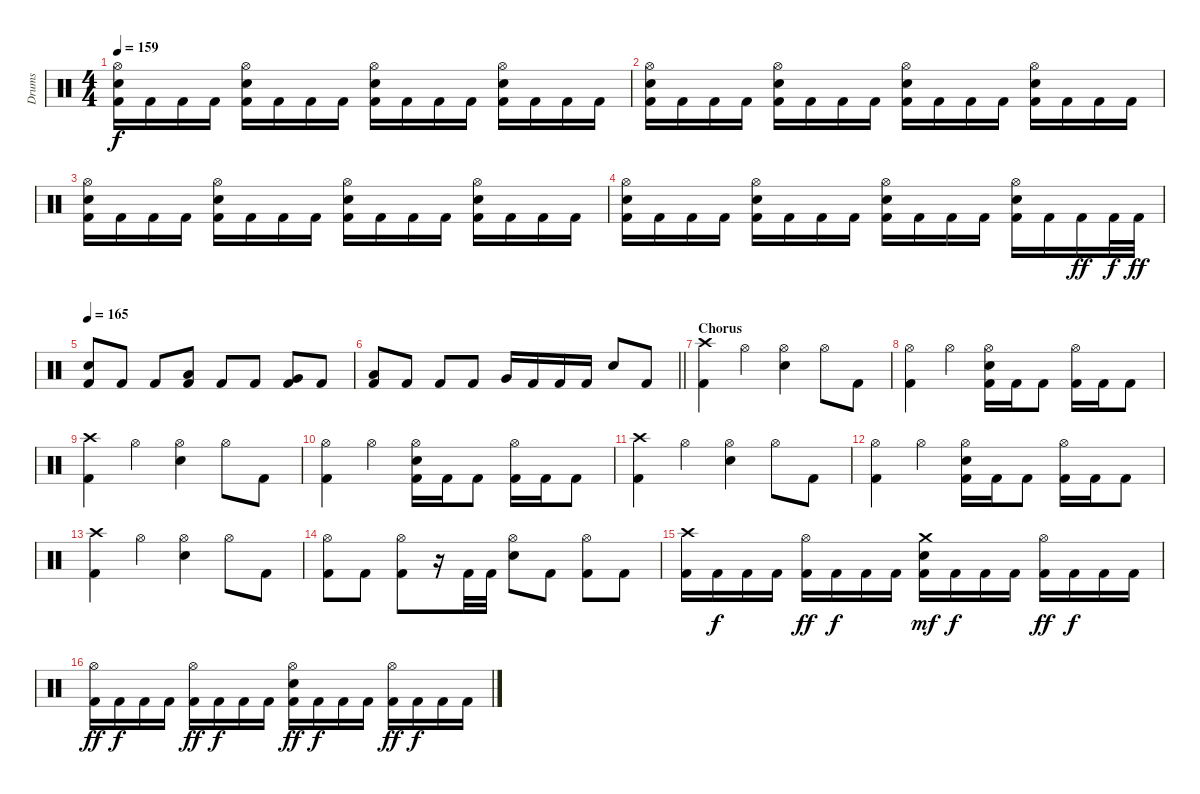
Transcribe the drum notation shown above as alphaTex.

\track ("Drums" "Drums") {instrument percussion}
\staff {score}
\articulation defaults
\ts (4 4)
\tempo 159
\clef neutral
\ks c
("Hi-Hat (open)" "Snare (hit) 2" "Kick (hit) 2").16{dy f} "Kick (hit) 2".16 "Kick (hit) 2".16 "Kick (hit) 2".16 ("Hi-Hat (open)" "Snare (hit) 2" "Kick (hit) 2").16 "Kick (hit) 2".16 "Kick (hit) 2".16 "Kick (hit) 2".16 ("Hi-Hat (open)" "Snare (hit) 2" "Kick (hit) 2").16 "Kick (hit) 2".16 "Kick (hit) 2".16 "Kick (hit) 2".16 ("Hi-Hat (open)" "Snare (hit) 2" "Kick (hit) 2").16 "Kick (hit) 2".16 "Kick (hit) 2".16 "Kick (hit) 2".16 |
("Hi-Hat (open)" "Snare (hit) 2" "Kick (hit) 2").16 "Kick (hit) 2".16 "Kick (hit) 2".16 "Kick (hit) 2".16 ("Hi-Hat (open)" "Snare (hit) 2" "Kick (hit) 2").16 "Kick (hit) 2".16 "Kick (hit) 2".16 "Kick (hit) 2".16 ("Hi-Hat (open)" "Snare (hit) 2" "Kick (hit) 2").16 "Kick (hit) 2".16 "Kick (hit) 2".16 "Kick (hit) 2".16 ("Hi-Hat (open)" "Snare (hit) 2" "Kick (hit) 2").16 "Kick (hit) 2".16 "Kick (hit) 2".16 "Kick (hit) 2".16 |
("Hi-Hat (open)" "Snare (hit) 2" "Kick (hit) 2").16 "Kick (hit) 2".16 "Kick (hit) 2".16 "Kick (hit) 2".16 ("Hi-Hat (open)" "Snare (hit) 2" "Kick (hit) 2").16 "Kick (hit) 2".16 "Kick (hit) 2".16 "Kick (hit) 2".16 ("Hi-Hat (open)" "Snare (hit) 2" "Kick (hit) 2").16 "Kick (hit) 2".16 "Kick (hit) 2".16 "Kick (hit) 2".16 ("Hi-Hat (open)" "Snare (hit) 2" "Kick (hit) 2").16 "Kick (hit) 2".16 "Kick (hit) 2".16 "Kick (hit) 2".16 |
("Hi-Hat (open)" "Snare (hit) 2" "Kick (hit) 2").16 "Kick (hit) 2".16 "Kick (hit) 2".16 "Kick (hit) 2".16 ("Hi-Hat (open)" "Snare (hit) 2" "Kick (hit) 2").16 "Kick (hit) 2".16 "Kick (hit) 2".16 "Kick (hit) 2".16 ("Hi-Hat (open)" "Snare (hit) 2" "Kick (hit) 2").16 "Kick (hit) 2".16 "Kick (hit) 2".16 "Kick (hit) 2".16 ("Hi-Hat (open)" "Snare (hit) 2" "Kick (hit) 2").16 "Kick (hit) 2".16 "Kick (hit) 2".16{dy ff} "Kick (hit) 2".32{dy f} "Kick (hit) 2".32{dy ff} |
\tempo 165
("Snare (hit) 2" "Kick (hit) 2").8 "Kick (hit) 2".8 "Kick (hit) 2".8 ("Low Tom (hit)" "Kick (hit) 2").8 "Kick (hit) 2".8 "Kick (hit) 2".8 ("Very Low Tom (hit)" "Kick (hit) 2").8 "Kick (hit) 2".8 |
\barLineRight lightlight
("Low Floor Tom (hit)" "Kick (hit) 2").8 "Kick (hit) 2".8 "Kick (hit) 2".8 "Kick (hit) 2".8 "Very Low Tom (hit)".16 "Kick (hit) 2".16 "Kick (hit) 2".16 "Kick (hit) 2".16 "Snare (hit) 2".8 "Kick (hit) 2".8 |
\section ("" "Chorus")
("Crash high (hit)" "Kick (hit) 2").4 "Hi-Hat (open)".4 ("Hi-Hat (open)" "Snare (hit) 2").4 "Hi-Hat (open)".8 "Kick (hit) 2".8 |
("Hi-Hat (open)" "Kick (hit) 2").4 "Hi-Hat (open)".4 ("Hi-Hat (open)" "Snare (hit) 2" "Kick (hit) 2").16 "Kick (hit) 2".16 "Kick (hit) 2".8 ("Hi-Hat (open)" "Kick (hit) 2").16 "Kick (hit) 2".16 "Kick (hit) 2".8 |
("Crash high (hit)" "Kick (hit) 2").4 "Hi-Hat (open)".4 ("Hi-Hat (open)" "Snare (hit) 2").4 "Hi-Hat (open)".8 "Kick (hit) 2".8 |
("Hi-Hat (open)" "Kick (hit) 2").4 "Hi-Hat (open)".4 ("Hi-Hat (open)" "Snare (hit) 2" "Kick (hit) 2").16 "Kick (hit) 2".16 "Kick (hit) 2".8 ("Hi-Hat (open)" "Kick (hit) 2").16 "Kick (hit) 2".16 "Kick (hit) 2".8 |
("Crash high (hit)" "Kick (hit) 2").4 "Hi-Hat (open)".4 ("Hi-Hat (open)" "Snare (hit) 2").4 "Hi-Hat (open)".8 "Kick (hit) 2".8 |
("Hi-Hat (open)" "Kick (hit) 2").4 "Hi-Hat (open)".4 ("Hi-Hat (open)" "Snare (hit) 2" "Kick (hit) 2").16 "Kick (hit) 2".16 "Kick (hit) 2".8 ("Hi-Hat (open)" "Kick (hit) 2").16 "Kick (hit) 2".16 "Kick (hit) 2".8 |
("Crash high (hit)" "Kick (hit) 2").4 "Hi-Hat (open)".4 ("Hi-Hat (open)" "Snare (hit) 2").4 "Hi-Hat (open)".8 "Kick (hit) 2".8 |
("Hi-Hat (open)" "Kick (hit) 2").8 "Kick (hit) 2".8 ("Hi-Hat (open)" "Kick (hit) 2").8 r.16 "Kick (hit) 2".32 "Kick (hit) 2".32 ("Hi-Hat (open)" "Snare (hit) 2").8 "Kick (hit) 2".8 ("Hi-Hat (open)" "Kick (hit) 2").8 "Kick (hit) 2".8 |
("Crash high (hit)" "Kick (hit) 2").16 "Kick (hit) 2".16{dy f} "Kick (hit) 2".16 "Kick (hit) 2".16 ("Hi-Hat (open)" "Kick (hit) 2").16{dy ff} "Kick (hit) 2".16{dy f} "Kick (hit) 2".16 "Kick (hit) 2".16 ("Crash medium (hit)" "Snare (hit) 2" "Kick (hit) 2").16{dy mf} "Kick (hit) 2".16{dy f} "Kick (hit) 2".16 "Kick (hit) 2".16 ("Hi-Hat (open)" "Kick (hit) 2").16{dy ff} "Kick (hit) 2".16{dy f} "Kick (hit) 2".16 "Kick (hit) 2".16 |
("Hi-Hat (open)" "Kick (hit) 2").16{dy ff} "Kick (hit) 2".16{dy f} "Kick (hit) 2".16 "Kick (hit) 2".16 ("Hi-Hat (open)" "Kick (hit) 2").16{dy ff} "Kick (hit) 2".16{dy f} "Kick (hit) 2".16 "Kick (hit) 2".16 ("Hi-Hat (open)" "Snare (hit) 2" "Kick (hit) 2").16{dy ff} "Kick (hit) 2".16{dy f} "Kick (hit) 2".16 "Kick (hit) 2".16 ("Hi-Hat (open)" "Kick (hit) 2").16{dy ff} "Kick (hit) 2".16{dy f} "Kick (hit) 2".16 "Kick (hit) 2".16
